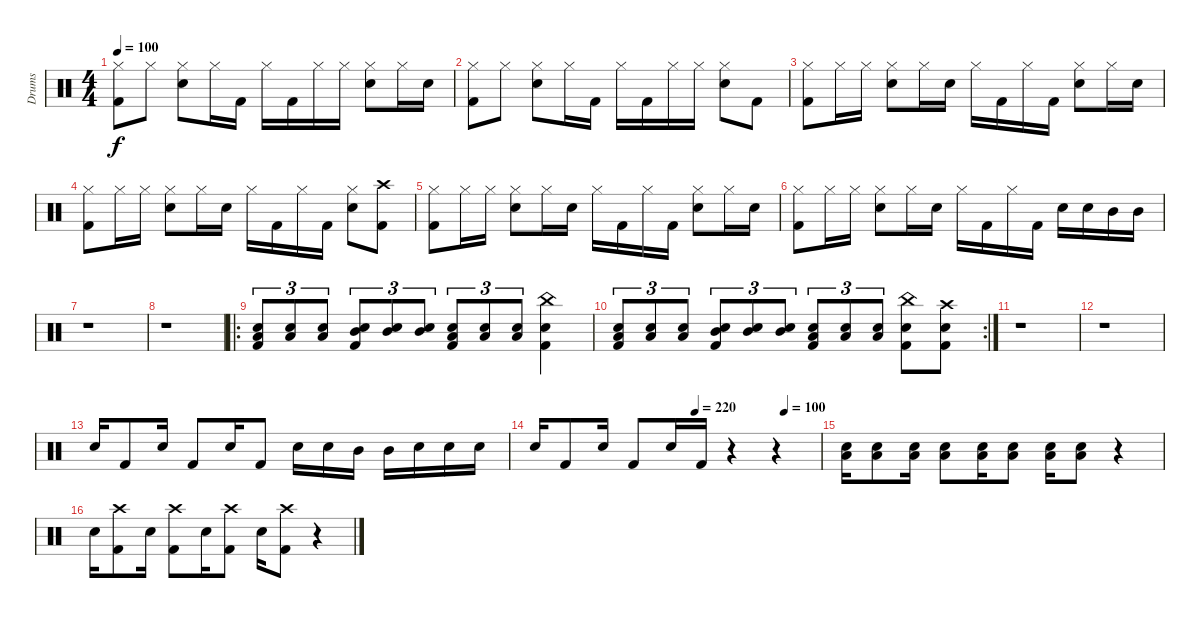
\track ("Drums" "Drums") {instrument percussion}
\staff {score}
\articulation defaults
\ts (4 4)
\tempo 100
\clef neutral
\ks c
("Hi-Hat (closed)" "Kick (hit) 2").8{dy f} "Hi-Hat (closed)".8 ("Snare (hit) 2" "Hi-Hat (closed)").8 "Hi-Hat (closed)".16 "Kick (hit) 2".16 "Hi-Hat (closed)".16 "Kick (hit) 2".16 "Hi-Hat (closed)".16 "Hi-Hat (closed)".16 ("Hi-Hat (closed)" "Snare (hit) 2").8 "Hi-Hat (closed)".16 "Snare (hit) 2".16 |
("Hi-Hat (closed)" "Kick (hit) 2").8 "Hi-Hat (closed)".8 ("Snare (hit) 2" "Hi-Hat (closed)").8 "Hi-Hat (closed)".16 "Kick (hit) 2".16 "Hi-Hat (closed)".16 "Kick (hit) 2".16 "Hi-Hat (closed)".16 "Hi-Hat (closed)".16 ("Hi-Hat (closed)" "Snare (hit) 2").8 "Kick (hit) 2".8 |
("Hi-Hat (closed)" "Kick (hit) 2").8 "Hi-Hat (closed)".16 "Hi-Hat (closed)".16 ("Hi-Hat (closed)" "Snare (hit) 2").8 "Hi-Hat (closed)".16 "Snare (hit) 2".16 "Hi-Hat (closed)".16 "Kick (hit) 2".16 "Hi-Hat (closed)".16 "Kick (hit) 2".16 ("Hi-Hat (closed)" "Snare (hit) 2").8 "Hi-Hat (closed)".16 "Snare (hit) 2".16 |
("Hi-Hat (closed)" "Kick (hit) 2").8 "Hi-Hat (closed)".16 "Hi-Hat (closed)".16 ("Hi-Hat (closed)" "Snare (hit) 2").8 "Hi-Hat (closed)".16 "Snare (hit) 2".16 "Hi-Hat (closed)".16 "Kick (hit) 2".16 "Hi-Hat (closed)".16 "Kick (hit) 2".16 ("Hi-Hat (closed)" "Snare (hit) 2").8 ("Crash high (hit)" "Kick (hit) 2").8 |
("Hi-Hat (closed)" "Kick (hit) 2").8 "Hi-Hat (closed)".16 "Hi-Hat (closed)".16 ("Hi-Hat (closed)" "Snare (hit) 2").8 "Hi-Hat (closed)".16 "Snare (hit) 2".16 "Hi-Hat (closed)".16 "Kick (hit) 2".16 "Hi-Hat (closed)".16 "Kick (hit) 2".16 ("Hi-Hat (closed)" "Snare (hit) 2").8 "Hi-Hat (closed)".16 "Snare (hit) 2".16 |
("Hi-Hat (closed)" "Kick (hit) 2").8 "Hi-Hat (closed)".16 "Hi-Hat (closed)".16 ("Hi-Hat (closed)" "Snare (hit) 2").8 "Hi-Hat (closed)".16 "Snare (hit) 2".16 "Hi-Hat (closed)".16 "Kick (hit) 2".16 "Hi-Hat (closed)".16 "Kick (hit) 2".16 "Snare (hit) 2".16 "Snare (hit) 2".16 "Mid Tom (hit)".16 "Mid Tom (hit)".16 |
r.1 |
r.1 |
\ro
("Snare (hit) 2" "Low Floor Tom (hit)" "Kick (hit) 2").8{tu (3 2)} ("Snare (hit) 2" "Low Floor Tom (hit)").8{tu (3 2)} ("Snare (hit) 2" "Low Floor Tom (hit)").8{tu (3 2)} ("Snare (hit) 2" "Mid Tom (hit)" "Kick (hit) 2").8{tu (3 2)} ("Snare (hit) 2" "Mid Tom (hit)").8{tu (3 2)} ("Snare (hit) 2" "Mid Tom (hit)").8{tu (3 2)} ("Snare (hit) 2" "Low Tom (hit)" "Kick (hit) 2").8{tu (3 2)} ("Snare (hit) 2" "Low Tom (hit)").8{tu (3 2)} ("Snare (hit) 2" "Low Tom (hit)").8{tu (3 2)} ("Snare (hit) 2" "China (hit)" "Kick (hit) 2").4 |
\rc 2
("Snare (hit) 2" "Low Floor Tom (hit)" "Kick (hit) 2").8{tu (3 2)} ("Snare (hit) 2" "Low Floor Tom (hit)").8{tu (3 2)} ("Snare (hit) 2" "Low Floor Tom (hit)").8{tu (3 2)} ("Snare (hit) 2" "Mid Tom (hit)" "Kick (hit) 2").8{tu (3 2)} ("Snare (hit) 2" "Mid Tom (hit)").8{tu (3 2)} ("Snare (hit) 2" "Mid Tom (hit)").8{tu (3 2)} ("Snare (hit) 2" "Low Tom (hit)" "Kick (hit) 2").8{tu (3 2)} ("Snare (hit) 2" "Low Tom (hit)").8{tu (3 2)} ("Snare (hit) 2" "Low Tom (hit)").8{tu (3 2)} ("Snare (hit) 2" "China (hit)" "Kick (hit) 2").8 ("Snare (hit) 2" "Crash high (hit)" "Kick (hit) 2").8 |
r.1 |
r.1 |
"Snare (hit) 2".16 "Kick (hit) 2".8 "Snare (hit) 2".16 "Kick (hit) 2".8 "Snare (hit) 2".16 "Kick (hit) 2".8 "Snare (hit) 2".16 "Snare (hit) 2".16 "Mid Tom (hit)".16 "Mid Tom (hit)".16 "Snare (hit) 2".16 "Snare (hit) 2".16 "Snare (hit) 2".16 |
\tempo (220 0.5625)
\tempo (100 0.875)
"Snare (hit) 2".16 "Kick (hit) 2".8 "Snare (hit) 2".16 "Kick (hit) 2".8 "Snare (hit) 2".16 "Kick (hit) 2".16 r.4 r.4 |
("Low Floor Tom (hit)" "Snare (hit) 2").16{volume 14} ("Low Floor Tom (hit)" "Snare (hit) 2").8 ("Snare (hit) 2" "Low Floor Tom (hit)").16 ("Low Floor Tom (hit)" "Snare (hit) 2").8 ("Snare (hit) 2" "Low Floor Tom (hit)").16 ("Snare (hit) 2" "Low Floor Tom (hit)").8 ("Snare (hit) 2" "Low Floor Tom (hit)").16 ("Snare (hit) 2" "Low Floor Tom (hit)").8 r.4 |
"Snare (hit) 2".16 ("Crash high (hit)" "Kick (hit) 2").8 "Snare (hit) 2".16 ("Crash high (hit)" "Kick (hit) 2").8 "Snare (hit) 2".16 ("Crash high (hit)" "Kick (hit) 2").8 "Snare (hit) 2".16 ("Crash high (hit)" "Kick (hit) 2").8 r.4
